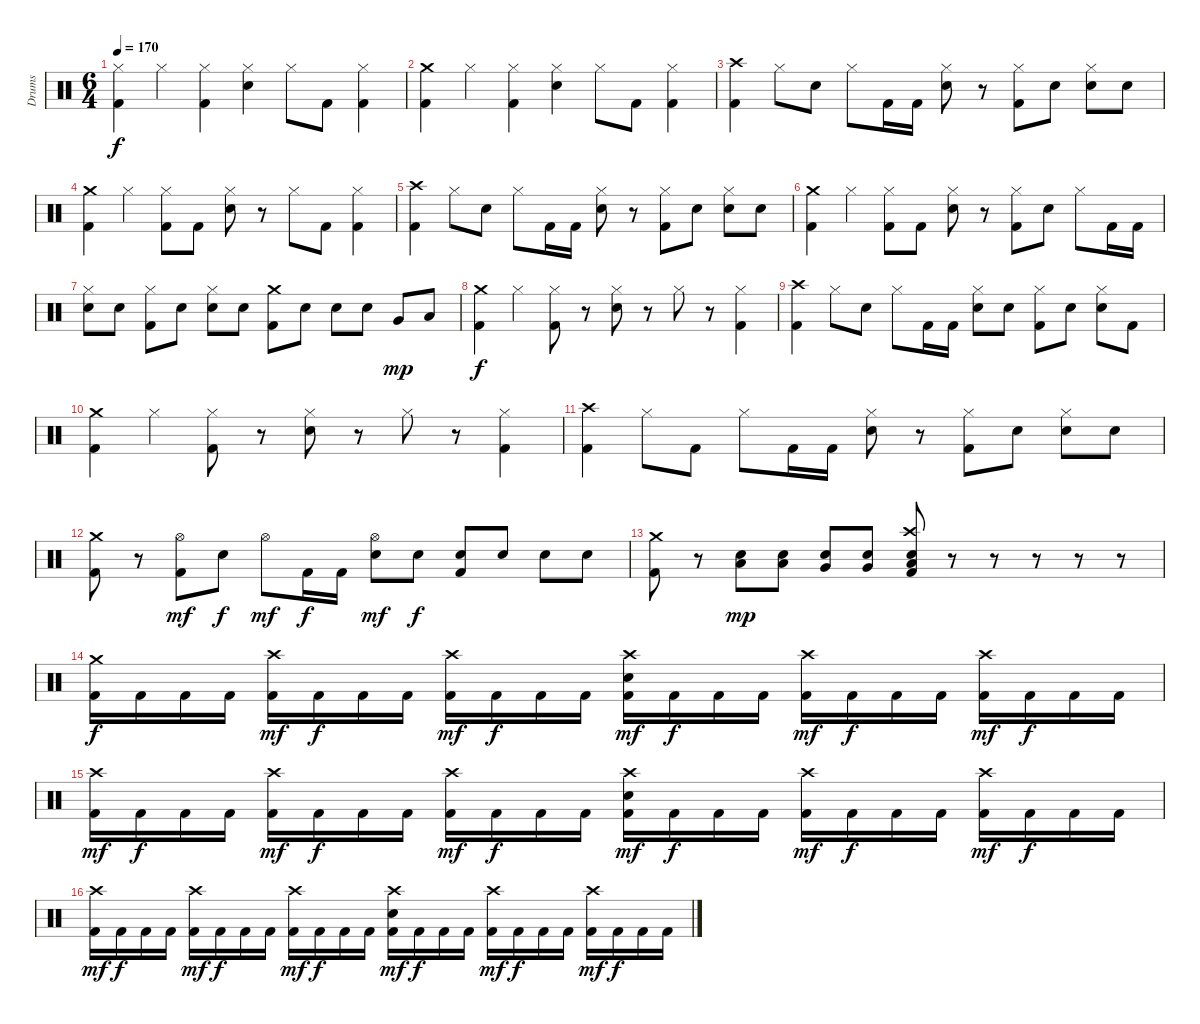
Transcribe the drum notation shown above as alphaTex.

\track ("Drums" "Drums") {instrument percussion}
\staff {score}
\articulation defaults
\ts (6 4)
\tempo 170
\clef neutral
\ks c
("Hi-Hat (closed)" "Kick (hit) 2").4{dy f} "Hi-Hat (closed)".4 ("Hi-Hat (closed)" "Kick (hit) 2").4 ("Hi-Hat (closed)" "Electric Snare (hit)").4 "Hi-Hat (closed)".8 "Kick (hit) 2".8 ("Hi-Hat (closed)" "Kick (hit) 2").4 |
("Crash medium (hit)" "Kick (hit) 2").4 "Hi-Hat (closed)".4 ("Hi-Hat (closed)" "Kick (hit) 2").4 ("Hi-Hat (closed)" "Electric Snare (hit)").4 "Hi-Hat (closed)".8 "Kick (hit) 2".8 ("Hi-Hat (closed)" "Kick (hit) 2").4 |
("Crash high (hit)" "Kick (hit) 2").4 "Hi-Hat (closed)".8 "Electric Snare (hit)".8 "Hi-Hat (closed)".8 "Kick (hit) 2".16 "Kick (hit) 2".16 ("Hi-Hat (closed)" "Electric Snare (hit)").8 r.8 ("Hi-Hat (closed)" "Kick (hit) 2").8 "Electric Snare (hit)".8 ("Hi-Hat (closed)" "Electric Snare (hit)").8 "Electric Snare (hit)".8 |
("Crash medium (hit)" "Kick (hit) 2").4 "Hi-Hat (closed)".4 ("Hi-Hat (closed)" "Kick (hit) 2").8 "Kick (hit) 2".8 ("Hi-Hat (closed)" "Electric Snare (hit)").8 r.8 "Hi-Hat (closed)".8 "Kick (hit) 2".8 ("Hi-Hat (closed)" "Kick (hit) 2").4 |
("Crash high (hit)" "Kick (hit) 2").4 "Hi-Hat (closed)".8 "Electric Snare (hit)".8 "Hi-Hat (closed)".8 "Kick (hit) 2".16 "Kick (hit) 2".16 ("Hi-Hat (closed)" "Electric Snare (hit)").8 r.8 ("Hi-Hat (closed)" "Kick (hit) 2").8 "Electric Snare (hit)".8 ("Hi-Hat (closed)" "Electric Snare (hit)").8 "Electric Snare (hit)".8 |
("Crash medium (hit)" "Kick (hit) 2").4 "Hi-Hat (closed)".4 ("Hi-Hat (closed)" "Kick (hit) 2").8 "Kick (hit) 2".8 ("Hi-Hat (closed)" "Electric Snare (hit)").8 r.8 ("Hi-Hat (closed)" "Kick (hit) 2").8 "Electric Snare (hit)".8 "Hi-Hat (closed)".8 "Kick (hit) 2".16 "Kick (hit) 2".16 |
("Hi-Hat (closed)" "Electric Snare (hit)").8 "Electric Snare (hit)".8 ("Hi-Hat (closed)" "Kick (hit) 2").8 "Electric Snare (hit)".8 ("Hi-Hat (closed)" "Electric Snare (hit)").8 "Electric Snare (hit)".8 ("Crash medium (hit)" "Kick (hit) 2").8 "Electric Snare (hit)".8 "Electric Snare (hit)".8 "Electric Snare (hit)".8 "Very Low Tom (hit)".8{dy mp} "Low Floor Tom (hit)".8 |
("Crash medium (hit)" "Kick (hit) 2").4{dy f} "Hi-Hat (closed)".4 ("Hi-Hat (closed)" "Kick (hit) 2").8 r.8 ("Hi-Hat (closed)" "Electric Snare (hit)").8 r.8 "Hi-Hat (closed)".8 r.8 ("Hi-Hat (closed)" "Kick (hit) 2").4 |
("Crash high (hit)" "Kick (hit) 2").4 "Hi-Hat (closed)".8 "Electric Snare (hit)".8 "Hi-Hat (closed)".8 "Kick (hit) 2".16 "Kick (hit) 2".16 ("Hi-Hat (closed)" "Electric Snare (hit)").8 "Electric Snare (hit)".8 ("Hi-Hat (closed)" "Kick (hit) 2").8 "Electric Snare (hit)".8 ("Hi-Hat (closed)" "Electric Snare (hit)").8 "Kick (hit) 2".8 |
("Crash medium (hit)" "Kick (hit) 2").4 "Hi-Hat (closed)".4 ("Hi-Hat (closed)" "Kick (hit) 2").8 r.8 ("Hi-Hat (closed)" "Electric Snare (hit)").8 r.8 "Hi-Hat (closed)".8 r.8 ("Hi-Hat (closed)" "Kick (hit) 2").4 |
("Crash high (hit)" "Kick (hit) 2").4 "Hi-Hat (closed)".8 "Kick (hit) 2".8 "Hi-Hat (closed)".8 "Kick (hit) 2".16 "Kick (hit) 2".16 ("Hi-Hat (closed)" "Electric Snare (hit)").8 r.8 ("Hi-Hat (closed)" "Kick (hit) 2").8 "Electric Snare (hit)".8 ("Hi-Hat (closed)" "Electric Snare (hit)").8 "Electric Snare (hit)".8 |
("Crash medium (hit)" "Kick (hit) 2").8 r.8 ("Hi-Hat (open)" "Kick (hit) 2").8{dy mf} "Electric Snare (hit)".8{dy f} "Hi-Hat (open)".8{dy mf} "Kick (hit) 2".16{dy f} "Kick (hit) 2".16 ("Hi-Hat (open)" "Electric Snare (hit)").8{dy mf} "Electric Snare (hit)".8{dy f} ("Electric Snare (hit)" "Kick (hit) 2").8 "Electric Snare (hit)".8 "Electric Snare (hit)".8 "Electric Snare (hit)".8 |
("Crash medium (hit)" "Kick (hit) 2").8 r.8 ("Low Tom (hit)" "Electric Snare (hit)").8{dy mp} ("Low Tom (hit)" "Electric Snare (hit)").8 ("Very Low Tom (hit)" "Electric Snare (hit)").8 ("Very Low Tom (hit)" "Electric Snare (hit)").8 ("Crash high (hit)" "Low Floor Tom (hit)" "Electric Snare (hit)" "Kick (hit) 2").8 r.8 r.8 r.8 r.8 r.8 |
("Crash medium (hit)" "Kick (hit) 2").16{dy f} "Kick (hit) 2".16 "Kick (hit) 2".16 "Kick (hit) 2".16 ("Crash high (hit)" "Kick (hit) 2").16{dy mf} "Kick (hit) 2".16{dy f} "Kick (hit) 2".16 "Kick (hit) 2".16 ("Crash high (hit)" "Kick (hit) 2").16{dy mf} "Kick (hit) 2".16{dy f} "Kick (hit) 2".16 "Kick (hit) 2".16 ("Crash high (hit)" "Electric Snare (hit)" "Kick (hit) 2").16{dy mf} "Kick (hit) 2".16{dy f} "Kick (hit) 2".16 "Kick (hit) 2".16 ("Crash high (hit)" "Kick (hit) 2").16{dy mf} "Kick (hit) 2".16{dy f} "Kick (hit) 2".16 "Kick (hit) 2".16 ("Crash high (hit)" "Kick (hit) 2").16{dy mf} "Kick (hit) 2".16{dy f} "Kick (hit) 2".16 "Kick (hit) 2".16 |
("Crash high (hit)" "Kick (hit) 2").16{dy mf} "Kick (hit) 2".16{dy f} "Kick (hit) 2".16 "Kick (hit) 2".16 ("Crash high (hit)" "Kick (hit) 2").16{dy mf} "Kick (hit) 2".16{dy f} "Kick (hit) 2".16 "Kick (hit) 2".16 ("Crash high (hit)" "Kick (hit) 2").16{dy mf} "Kick (hit) 2".16{dy f} "Kick (hit) 2".16 "Kick (hit) 2".16 ("Crash high (hit)" "Electric Snare (hit)" "Kick (hit) 2").16{dy mf} "Kick (hit) 2".16{dy f} "Kick (hit) 2".16 "Kick (hit) 2".16 ("Crash high (hit)" "Kick (hit) 2").16{dy mf} "Kick (hit) 2".16{dy f} "Kick (hit) 2".16 "Kick (hit) 2".16 ("Crash high (hit)" "Kick (hit) 2").16{dy mf} "Kick (hit) 2".16{dy f} "Kick (hit) 2".16 "Kick (hit) 2".16 |
("Crash high (hit)" "Kick (hit) 2").16{dy mf} "Kick (hit) 2".16{dy f} "Kick (hit) 2".16 "Kick (hit) 2".16 ("Crash high (hit)" "Kick (hit) 2").16{dy mf} "Kick (hit) 2".16{dy f} "Kick (hit) 2".16 "Kick (hit) 2".16 ("Crash high (hit)" "Kick (hit) 2").16{dy mf} "Kick (hit) 2".16{dy f} "Kick (hit) 2".16 "Kick (hit) 2".16 ("Crash high (hit)" "Electric Snare (hit)" "Kick (hit) 2").16{dy mf} "Kick (hit) 2".16{dy f} "Kick (hit) 2".16 "Kick (hit) 2".16 ("Crash high (hit)" "Kick (hit) 2").16{dy mf} "Kick (hit) 2".16{dy f} "Kick (hit) 2".16 "Kick (hit) 2".16 ("Crash high (hit)" "Kick (hit) 2").16{dy mf} "Kick (hit) 2".16{dy f} "Kick (hit) 2".16 "Kick (hit) 2".16
